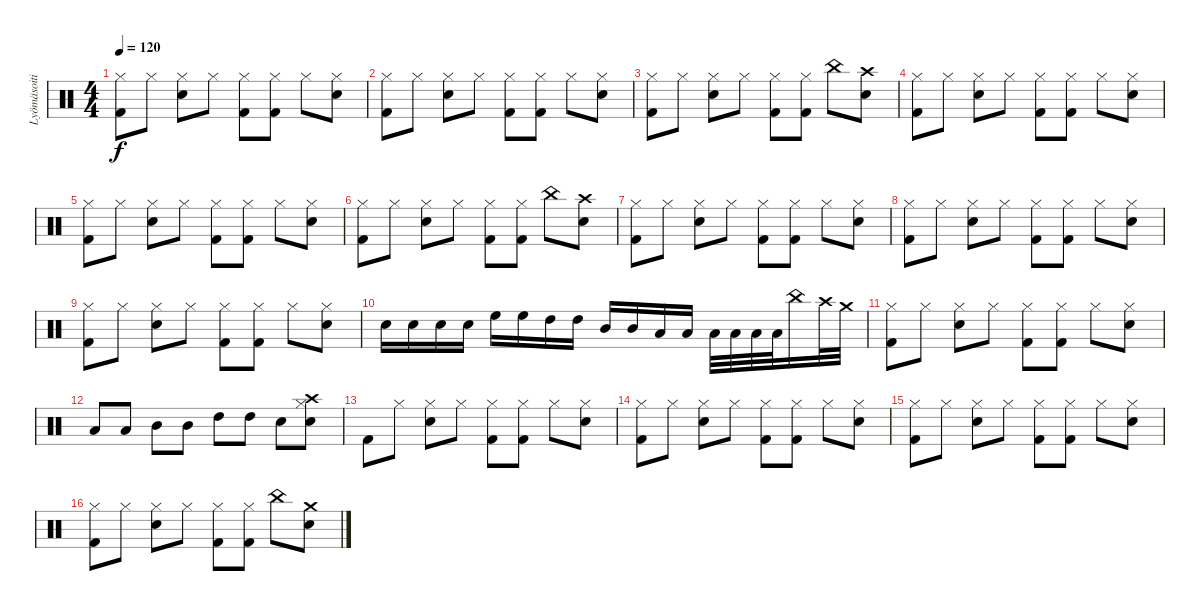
\track ("Lyömäsoitin" "Lyömäsoiti") {instrument percussion}
\staff {score}
\articulation defaults
\ts (4 4)
\tempo 120
\clef neutral
\ks c
("Hi-Hat (closed)" "Kick (hit) 2").8{dy f} "Hi-Hat (closed)".8 ("Hi-Hat (closed)" "Snare (hit) 2").8 "Hi-Hat (closed)".8 ("Hi-Hat (closed)" "Kick (hit) 2").8 ("Hi-Hat (closed)" "Kick (hit) 2").8 "Hi-Hat (closed)".8 ("Hi-Hat (closed)" "Snare (hit) 2").8 |
("Hi-Hat (closed)" "Kick (hit) 2").8 "Hi-Hat (closed)".8 ("Hi-Hat (closed)" "Snare (hit) 2").8 "Hi-Hat (closed)".8 ("Hi-Hat (closed)" "Kick (hit) 2").8 ("Hi-Hat (closed)" "Kick (hit) 2").8 "Hi-Hat (closed)".8 ("Hi-Hat (closed)" "Snare (hit) 2").8 |
("Hi-Hat (closed)" "Kick (hit) 2").8 "Hi-Hat (closed)".8 ("Hi-Hat (closed)" "Snare (hit) 2").8 "Hi-Hat (closed)".8 ("Hi-Hat (closed)" "Kick (hit) 2").8 ("Hi-Hat (closed)" "Kick (hit) 2").8 "China (hit)".8 ("Crash high (hit)" "Snare (hit) 2").8 |
("Hi-Hat (closed)" "Kick (hit) 2").8 "Hi-Hat (closed)".8 ("Hi-Hat (closed)" "Snare (hit) 2").8 "Hi-Hat (closed)".8 ("Hi-Hat (closed)" "Kick (hit) 2").8 ("Hi-Hat (closed)" "Kick (hit) 2").8 "Hi-Hat (closed)".8 ("Hi-Hat (closed)" "Snare (hit) 2").8 |
("Hi-Hat (closed)" "Kick (hit) 2").8 "Hi-Hat (closed)".8 ("Hi-Hat (closed)" "Snare (hit) 2").8 "Hi-Hat (closed)".8 ("Hi-Hat (closed)" "Kick (hit) 2").8 ("Hi-Hat (closed)" "Kick (hit) 2").8 "Hi-Hat (closed)".8 ("Hi-Hat (closed)" "Snare (hit) 2").8 |
("Hi-Hat (closed)" "Kick (hit) 2").8 "Hi-Hat (closed)".8 ("Hi-Hat (closed)" "Snare (hit) 2").8 "Hi-Hat (closed)".8 ("Hi-Hat (closed)" "Kick (hit) 2").8 ("Hi-Hat (closed)" "Kick (hit) 2").8 "China (hit)".8 ("Crash high (hit)" "Snare (hit) 2").8 |
("Hi-Hat (closed)" "Kick (hit) 2").8 "Hi-Hat (closed)".8 ("Hi-Hat (closed)" "Snare (hit) 2").8 "Hi-Hat (closed)".8 ("Hi-Hat (closed)" "Kick (hit) 2").8 ("Hi-Hat (closed)" "Kick (hit) 2").8 "Hi-Hat (closed)".8 ("Hi-Hat (closed)" "Snare (hit) 2").8 |
("Hi-Hat (closed)" "Kick (hit) 2").8 "Hi-Hat (closed)".8 ("Hi-Hat (closed)" "Snare (hit) 2").8 "Hi-Hat (closed)".8 ("Hi-Hat (closed)" "Kick (hit) 2").8 ("Hi-Hat (closed)" "Kick (hit) 2").8 "Hi-Hat (closed)".8 ("Hi-Hat (closed)" "Snare (hit) 2").8 |
("Hi-Hat (closed)" "Kick (hit) 2").8 "Hi-Hat (closed)".8 ("Hi-Hat (closed)" "Snare (hit) 2").8 "Hi-Hat (closed)".8 ("Hi-Hat (closed)" "Kick (hit) 2").8 ("Hi-Hat (closed)" "Kick (hit) 2").8 "Hi-Hat (closed)".8 ("Hi-Hat (closed)" "Snare (hit) 2").8 |
"Snare (hit) 2".16 "Snare (hit) 2".16 "Snare (hit) 2".16 "Snare (hit) 2".16 "High Floor Tom (hit)".16 "High Floor Tom (hit)".16 "High Tom (hit)".16 "High Tom (hit)".16 "Mid Tom (hit)".16 "Mid Tom (hit)".16 "Low Tom (hit)".16 "Low Tom (hit)".16 "Low Tom (hit)".32 "Low Tom (hit)".32 "Low Tom (hit)".32 "Low Tom (hit)".32 "China (hit)".16 "Crash high (hit)".32 "Crash medium (hit)".32 |
("Hi-Hat (closed)" "Kick (hit) 2").8 "Hi-Hat (closed)".8 ("Hi-Hat (closed)" "Snare (hit) 2").8 "Hi-Hat (closed)".8 ("Hi-Hat (closed)" "Kick (hit) 2").8 ("Hi-Hat (closed)" "Kick (hit) 2").8 "Hi-Hat (closed)".8 ("Hi-Hat (closed)" "Snare (hit) 2").8 |
"Low Tom (hit)".8 "Low Tom (hit)".8 "Mid Tom (hit)".8 "Mid Tom (hit)".8 "High Tom (hit)".8 "High Tom (hit)".8 "Snare (hit) 2".8 ("Crash high (hit)" "Snare (hit) 2" "Hi-Hat (closed)").8 |
"Kick (hit) 2".8 "Hi-Hat (closed)".8 ("Hi-Hat (closed)" "Snare (hit) 2").8 "Hi-Hat (closed)".8 ("Hi-Hat (closed)" "Kick (hit) 2").8 ("Hi-Hat (closed)" "Kick (hit) 2").8 "Hi-Hat (closed)".8 ("Hi-Hat (closed)" "Snare (hit) 2").8 |
("Hi-Hat (closed)" "Kick (hit) 2").8 "Hi-Hat (closed)".8 ("Hi-Hat (closed)" "Snare (hit) 2").8 "Hi-Hat (closed)".8 ("Hi-Hat (closed)" "Kick (hit) 2").8 ("Hi-Hat (closed)" "Kick (hit) 2").8 "Hi-Hat (closed)".8 ("Hi-Hat (closed)" "Snare (hit) 2").8 |
("Hi-Hat (closed)" "Kick (hit) 2").8 "Hi-Hat (closed)".8 ("Hi-Hat (closed)" "Snare (hit) 2").8 "Hi-Hat (closed)".8 ("Hi-Hat (closed)" "Kick (hit) 2").8 ("Hi-Hat (closed)" "Kick (hit) 2").8 "Hi-Hat (closed)".8 ("Hi-Hat (closed)" "Snare (hit) 2").8 |
("Hi-Hat (closed)" "Kick (hit) 2").8 "Hi-Hat (closed)".8 ("Hi-Hat (closed)" "Snare (hit) 2").8 "Hi-Hat (closed)".8 ("Hi-Hat (closed)" "Kick (hit) 2").8 ("Hi-Hat (closed)" "Kick (hit) 2").8 "China (hit)".8 ("Crash medium (hit)" "Snare (hit) 2").8
